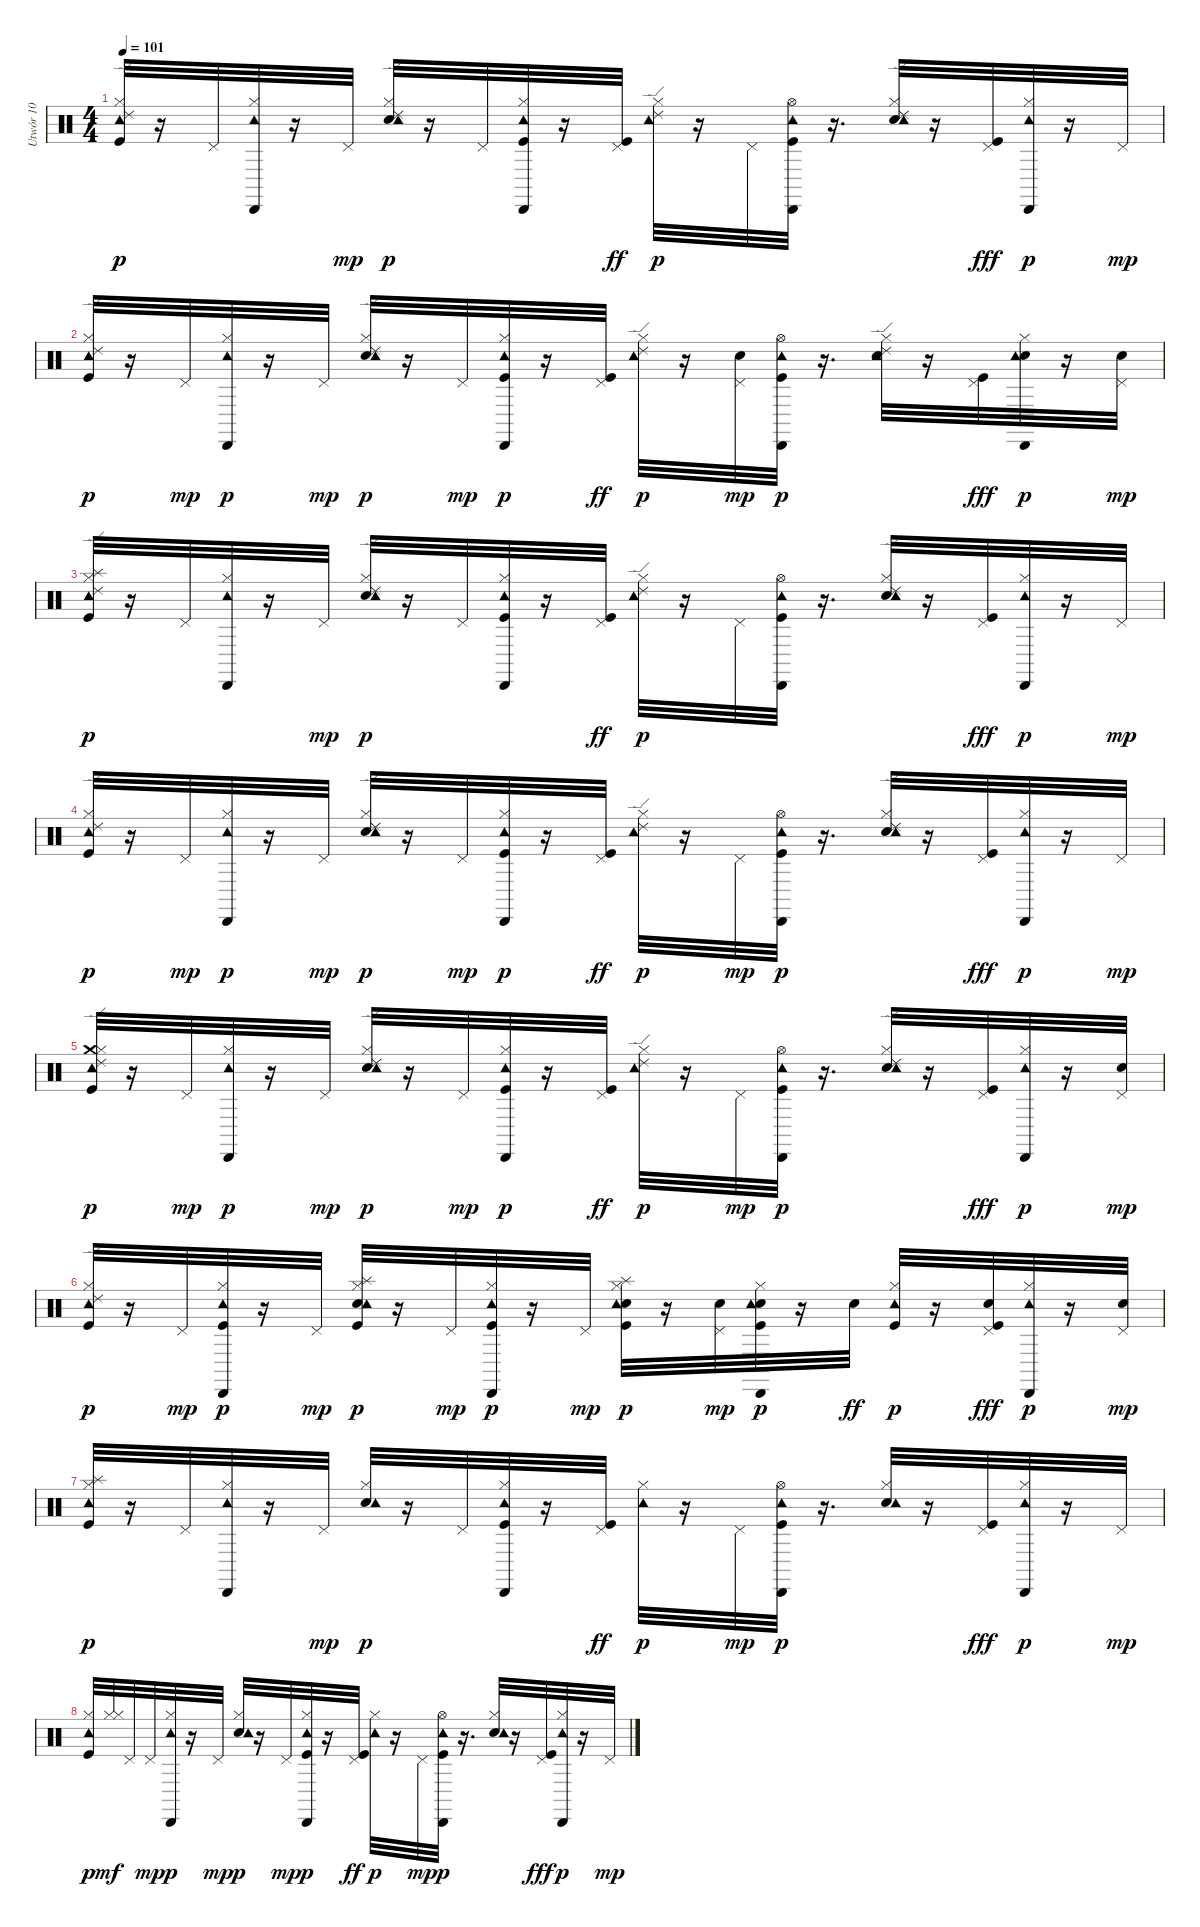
\track ("Utwór 10" "Utwór 10") {instrument percussion}
\staff {score}
\articulation defaults
\ts (4 4)
\tempo 101
\clef neutral
\ks c
("Ride (edge) 2" "Hi-Hat (closed)" "Kick (hit)" "Tambourine (hit)").32{dy p} r.16 "Pedal Hi-Hat (hit)".32 ("Cabasa (hit)" "Hi-Hat (closed)" "Tambourine (hit)").32 r.16 "Pedal Hi-Hat (hit)".32{dy mp} ("Ride (edge) 2" "Electric Snare (hit)" "Hi-Hat (closed)" "Tambourine (hit)").32{dy p} r.16 "Pedal Hi-Hat (hit)".32 ("Cabasa (hit)" "Hi-Hat (closed)" "Kick (hit)" "Tambourine (hit)").32 r.16 ("Pedal Hi-Hat (hit)" "Kick (hit)").32{dy ff} ("Ride (edge) 2" "Hi-Hat (closed)" "Tambourine (hit)").32{dy p} r.16 "Pedal Hi-Hat (hit)".32 ("Cabasa (hit)" "Hi-Hat (open)" "Kick (hit)" "Tambourine (hit)").32 r.16{d} ("Ride (edge) 2" "Electric Snare (hit)" "Hi-Hat (closed)" "Tambourine (hit)").32 r.16 ("Pedal Hi-Hat (hit)" "Kick (hit)").32{dy fff} ("Cabasa (hit)" "Hi-Hat (closed)" "Tambourine (hit)").32{dy p} r.16 "Pedal Hi-Hat (hit)".32{dy mp} |
("Ride (edge) 2" "Hi-Hat (closed)" "Kick (hit)" "Tambourine (hit)").32{dy p} r.16 "Pedal Hi-Hat (hit)".32{dy mp} ("Cabasa (hit)" "Hi-Hat (closed)" "Tambourine (hit)").32{dy p} r.16 "Pedal Hi-Hat (hit)".32{dy mp} ("Ride (edge) 2" "Electric Snare (hit)" "Hi-Hat (closed)" "Tambourine (hit)").32{dy p} r.16 "Pedal Hi-Hat (hit)".32{dy mp} ("Cabasa (hit)" "Hi-Hat (closed)" "Kick (hit)" "Tambourine (hit)").32{dy p} r.16 ("Pedal Hi-Hat (hit)" "Kick (hit)").32{dy ff} ("Ride (edge) 2" "Hi-Hat (closed)" "Tambourine (hit)").32{dy p} r.16 ("Electric Snare (hit)" "Pedal Hi-Hat (hit)").32{dy mp} ("Cabasa (hit)" "Hi-Hat (open)" "Kick (hit)" "Tambourine (hit)").32{dy p} r.16{d} ("Ride (edge) 2" "Electric Snare (hit)" "Hi-Hat (closed)" "Tambourine (hit)").32 r.16 ("Pedal Hi-Hat (hit)" "Kick (hit)").32{dy fff} ("Cabasa (hit)" "Electric Snare (hit)" "Hi-Hat (closed)" "Tambourine (hit)").32{dy p} r.16 ("Electric Snare (hit)" "Pedal Hi-Hat (hit)").32{dy mp} |
("Ride (edge) 2" "Splash (hit)" "Hi-Hat (closed)" "Kick (hit)" "Tambourine (hit)").32{dy p} r.16 "Pedal Hi-Hat (hit)".32 ("Cabasa (hit)" "Hi-Hat (closed)" "Tambourine (hit)").32 r.16 "Pedal Hi-Hat (hit)".32{dy mp} ("Ride (edge) 2" "Electric Snare (hit)" "Hi-Hat (closed)" "Tambourine (hit)").32{dy p} r.16 "Pedal Hi-Hat (hit)".32 ("Cabasa (hit)" "Hi-Hat (closed)" "Kick (hit)" "Tambourine (hit)").32 r.16 ("Pedal Hi-Hat (hit)" "Kick (hit)").32{dy ff} ("Ride (edge) 2" "Hi-Hat (closed)" "Tambourine (hit)").32{dy p} r.16 "Pedal Hi-Hat (hit)".32 ("Cabasa (hit)" "Hi-Hat (open)" "Kick (hit)" "Tambourine (hit)").32 r.16{d} ("Ride (edge) 2" "Electric Snare (hit)" "Hi-Hat (closed)" "Tambourine (hit)").32 r.16 ("Pedal Hi-Hat (hit)" "Kick (hit)").32{dy fff} ("Cabasa (hit)" "Hi-Hat (closed)" "Tambourine (hit)").32{dy p} r.16 "Pedal Hi-Hat (hit)".32{dy mp} |
("Ride (edge) 2" "Hi-Hat (closed)" "Kick (hit)" "Tambourine (hit)").32{dy p} r.16 "Pedal Hi-Hat (hit)".32{dy mp} ("Cabasa (hit)" "Hi-Hat (closed)" "Tambourine (hit)").32{dy p} r.16 "Pedal Hi-Hat (hit)".32{dy mp} ("Ride (edge) 2" "Electric Snare (hit)" "Hi-Hat (closed)" "Tambourine (hit)").32{dy p} r.16 "Pedal Hi-Hat (hit)".32{dy mp} ("Cabasa (hit)" "Hi-Hat (closed)" "Kick (hit)" "Tambourine (hit)").32{dy p} r.16 ("Pedal Hi-Hat (hit)" "Kick (hit)").32{dy ff} ("Ride (edge) 2" "Hi-Hat (closed)" "Tambourine (hit)").32{dy p} r.16 "Pedal Hi-Hat (hit)".32{dy mp} ("Cabasa (hit)" "Hi-Hat (open)" "Kick (hit)" "Tambourine (hit)").32{dy p} r.16{d} ("Ride (edge) 2" "Electric Snare (hit)" "Hi-Hat (closed)" "Tambourine (hit)").32 r.16 ("Pedal Hi-Hat (hit)" "Kick (hit)").32{dy fff} ("Cabasa (hit)" "Hi-Hat (closed)" "Tambourine (hit)").32{dy p} r.16 "Pedal Hi-Hat (hit)".32{dy mp} |
("Ride (edge) 2" "Crash medium (hit)" "Hi-Hat (closed)" "Kick (hit)" "Tambourine (hit)").32{dy p} r.16 "Pedal Hi-Hat (hit)".32{dy mp} ("Cabasa (hit)" "Hi-Hat (closed)" "Tambourine (hit)").32{dy p} r.16 "Pedal Hi-Hat (hit)".32{dy mp} ("Ride (edge) 2" "Electric Snare (hit)" "Hi-Hat (closed)" "Tambourine (hit)").32{dy p} r.16 "Pedal Hi-Hat (hit)".32{dy mp} ("Cabasa (hit)" "Hi-Hat (closed)" "Kick (hit)" "Tambourine (hit)").32{dy p} r.16 ("Pedal Hi-Hat (hit)" "Kick (hit)").32{dy ff} ("Ride (edge) 2" "Hi-Hat (closed)" "Tambourine (hit)").32{dy p} r.16 "Pedal Hi-Hat (hit)".32{dy mp} ("Cabasa (hit)" "Hi-Hat (open)" "Kick (hit)" "Tambourine (hit)").32{dy p} r.16{d} ("Ride (edge) 2" "Electric Snare (hit)" "Hi-Hat (closed)" "Tambourine (hit)").32 r.16 ("Pedal Hi-Hat (hit)" "Kick (hit)").32{dy fff} ("Cabasa (hit)" "Hi-Hat (closed)" "Tambourine (hit)").32{dy p} r.16 ("Electric Snare (hit)" "Pedal Hi-Hat (hit)").32{dy mp} |
("Ride (edge) 2" "Hi-Hat (closed)" "Kick (hit)" "Tambourine (hit)").32{dy p} r.16 "Pedal Hi-Hat (hit)".32{dy mp} ("Cabasa (hit)" "Hi-Hat (closed)" "Kick (hit)" "Tambourine (hit)").32{dy p} r.16 "Pedal Hi-Hat (hit)".32{dy mp} ("Splash (hit)" "Electric Snare (hit)" "Hi-Hat (closed)" "Kick (hit)" "Tambourine (hit)").32{dy p} r.16 "Pedal Hi-Hat (hit)".32{dy mp} ("Cabasa (hit)" "Hi-Hat (closed)" "Kick (hit)" "Tambourine (hit)").32{dy p} r.16 "Pedal Hi-Hat (hit)".32{dy mp} ("Splash (hit)" "Electric Snare (hit)" "Hi-Hat (closed)" "Kick (hit)" "Tambourine (hit)").32{dy p} r.16 ("Electric Snare (hit)" "Pedal Hi-Hat (hit)").32{dy mp} ("Cabasa (hit)" "Electric Snare (hit)" "Hi-Hat (closed)" "Kick (hit)" "Tambourine (hit)").32{dy p} r.16 "Electric Snare (hit)".32{dy ff} ("Hi-Hat (closed)" "Kick (hit)" "Tambourine (hit)").32{dy p} r.16 ("Electric Snare (hit)" "Pedal Hi-Hat (hit)" "Kick (hit)").32{dy fff} ("Cabasa (hit)" "Hi-Hat (closed)" "Tambourine (hit)").32{dy p} r.16 ("Electric Snare (hit)" "Pedal Hi-Hat (hit)").32{dy mp} |
("Splash (hit)" "Hi-Hat (closed)" "Kick (hit)" "Tambourine (hit)").32{dy p} r.16 "Pedal Hi-Hat (hit)".32 ("Cabasa (hit)" "Hi-Hat (closed)" "Tambourine (hit)").32 r.16 "Pedal Hi-Hat (hit)".32{dy mp} ("Electric Snare (hit)" "Hi-Hat (closed)" "Tambourine (hit)").32{dy p} r.16 "Pedal Hi-Hat (hit)".32 ("Cabasa (hit)" "Hi-Hat (closed)" "Kick (hit)" "Tambourine (hit)").32 r.16 ("Pedal Hi-Hat (hit)" "Kick (hit)").32{dy ff} ("Hi-Hat (closed)" "Tambourine (hit)").32{dy p} r.16 "Pedal Hi-Hat (hit)".32{dy mp} ("Cabasa (hit)" "Hi-Hat (open)" "Kick (hit)" "Tambourine (hit)").32{dy p} r.16{d} ("Electric Snare (hit)" "Hi-Hat (closed)" "Tambourine (hit)").32 r.16 ("Pedal Hi-Hat (hit)" "Kick (hit)").32{dy fff} ("Cabasa (hit)" "Hi-Hat (closed)" "Tambourine (hit)").32{dy p} r.16 "Pedal Hi-Hat (hit)".32{dy mp} |
("Hi-Hat (closed)" "Kick (hit)" "Tambourine (hit)").32{dy p} ("Hi-Hat (closed)" "Hi-Hat (closed)").32{dy mf} "Pedal Hi-Hat (hit)".32 "Pedal Hi-Hat (hit)".32{dy mp} ("Cabasa (hit)" "Hi-Hat (closed)" "Tambourine (hit)").32{dy p} r.16 "Pedal Hi-Hat (hit)".32{dy mp} ("Electric Snare (hit)" "Hi-Hat (closed)" "Tambourine (hit)").32{dy p} r.16 "Pedal Hi-Hat (hit)".32{dy mp} ("Cabasa (hit)" "Hi-Hat (closed)" "Kick (hit)" "Tambourine (hit)").32{dy p} r.16 ("Pedal Hi-Hat (hit)" "Kick (hit)").32{dy ff} ("Hi-Hat (closed)" "Tambourine (hit)").32{dy p} r.16 "Pedal Hi-Hat (hit)".32{dy mp} ("Cabasa (hit)" "Hi-Hat (open)" "Kick (hit)" "Tambourine (hit)").32{dy p} r.16{d} ("Electric Snare (hit)" "Hi-Hat (closed)" "Tambourine (hit)").32 r.16 ("Pedal Hi-Hat (hit)" "Kick (hit)").32{dy fff} ("Cabasa (hit)" "Hi-Hat (closed)" "Tambourine (hit)").32{dy p} r.16 "Pedal Hi-Hat (hit)".32{dy mp}
